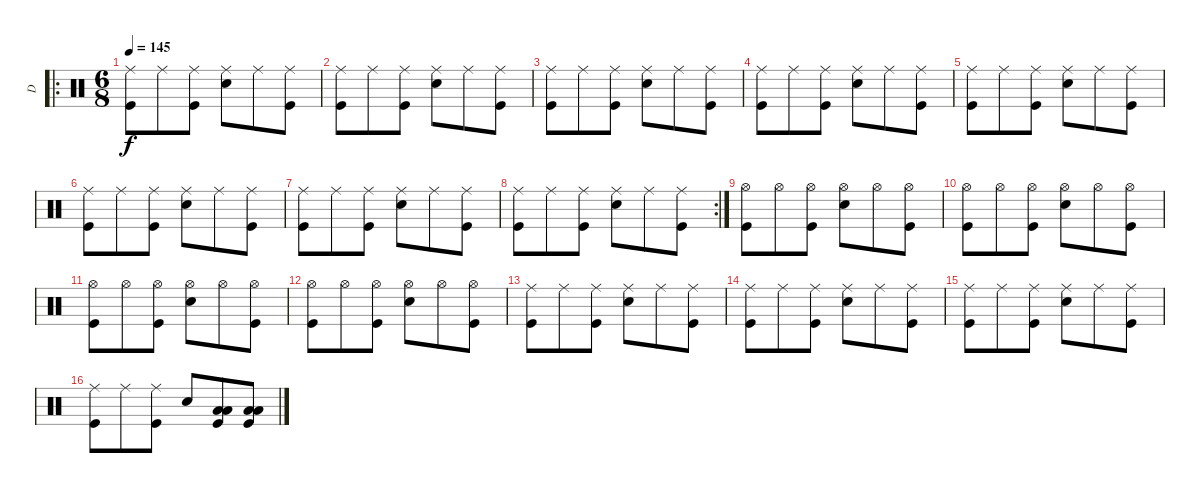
\track ("D" "D") {instrument percussion}
\staff {score}
\articulation defaults
\ro
\ts (6 8)
\tempo 145
\clef neutral
\ks c
("Ride (middle)" "Kick (hit)").8{dy f} "Ride (middle)".8 ("Ride (middle)" "Kick (hit)").8 ("Ride (middle)" "Snare (hit) 2").8 "Ride (middle)".8 ("Ride (middle)" "Kick (hit)").8 |
("Ride (middle)" "Kick (hit)").8 "Ride (middle)".8 ("Ride (middle)" "Kick (hit)").8 ("Ride (middle)" "Snare (hit) 2").8 "Ride (middle)".8 ("Ride (middle)" "Kick (hit)").8 |
("Ride (middle)" "Kick (hit)").8 "Ride (middle)".8 ("Ride (middle)" "Kick (hit)").8 ("Ride (middle)" "Snare (hit) 2").8 "Ride (middle)".8 ("Ride (middle)" "Kick (hit)").8 |
("Ride (middle)" "Kick (hit)").8 "Ride (middle)".8 ("Ride (middle)" "Kick (hit)").8 ("Ride (middle)" "Snare (hit) 2").8 "Ride (middle)".8 ("Ride (middle)" "Kick (hit)").8 |
("Ride (middle)" "Kick (hit)").8 "Ride (middle)".8 ("Ride (middle)" "Kick (hit)").8 ("Ride (middle)" "Snare (hit) 2").8 "Ride (middle)".8 ("Ride (middle)" "Kick (hit)").8 |
("Ride (middle)" "Kick (hit)").8 "Ride (middle)".8 ("Ride (middle)" "Kick (hit)").8 ("Ride (middle)" "Snare (hit) 2").8 "Ride (middle)".8 ("Ride (middle)" "Kick (hit)").8 |
("Ride (middle)" "Kick (hit)").8 "Ride (middle)".8 ("Ride (middle)" "Kick (hit)").8 ("Ride (middle)" "Snare (hit) 2").8 "Ride (middle)".8 ("Ride (middle)" "Kick (hit)").8 |
\rc 2
("Ride (middle)" "Kick (hit)").8 "Ride (middle)".8 ("Ride (middle)" "Kick (hit)").8 ("Ride (middle)" "Snare (hit) 2").8 "Ride (middle)".8 ("Ride (middle)" "Kick (hit)").8 |
("Hi-Hat (open)" "Kick (hit)").8 "Hi-Hat (open)".8 ("Hi-Hat (open)" "Kick (hit)").8 ("Hi-Hat (open)" "Snare (hit) 2").8 "Hi-Hat (open)".8 ("Hi-Hat (open)" "Kick (hit)").8 |
("Hi-Hat (open)" "Kick (hit)").8 "Hi-Hat (open)".8 ("Hi-Hat (open)" "Kick (hit)").8 ("Hi-Hat (open)" "Snare (hit) 2").8 "Hi-Hat (open)".8 ("Hi-Hat (open)" "Kick (hit)").8 |
("Hi-Hat (open)" "Kick (hit)").8 "Hi-Hat (open)".8 ("Hi-Hat (open)" "Kick (hit)").8 ("Hi-Hat (open)" "Snare (hit) 2").8 "Hi-Hat (open)".8 ("Hi-Hat (open)" "Kick (hit)").8 |
("Hi-Hat (open)" "Kick (hit)").8 "Hi-Hat (open)".8 ("Hi-Hat (open)" "Kick (hit)").8 ("Hi-Hat (open)" "Snare (hit) 2").8 "Hi-Hat (open)".8 ("Hi-Hat (open)" "Kick (hit)").8 |
("Ride (middle)" "Kick (hit)").8 "Ride (middle)".8 ("Ride (middle)" "Kick (hit)").8 ("Ride (middle)" "Snare (hit) 2").8 "Ride (middle)".8 ("Ride (middle)" "Kick (hit)").8 |
("Ride (middle)" "Kick (hit)").8 "Ride (middle)".8 ("Ride (middle)" "Kick (hit)").8 ("Ride (middle)" "Snare (hit) 2").8 "Ride (middle)".8 ("Ride (middle)" "Kick (hit)").8 |
("Ride (middle)" "Kick (hit)").8 "Ride (middle)".8 ("Ride (middle)" "Kick (hit)").8 ("Ride (middle)" "Snare (hit) 2").8 "Ride (middle)".8 ("Ride (middle)" "Kick (hit)").8 |
("Ride (middle)" "Kick (hit)").8 "Ride (middle)".8 ("Ride (middle)" "Kick (hit)").8 "Snare (hit) 2".8 ("Low Tom (hit)" "Low Tom (hit)" "Kick (hit)").8 ("Low Floor Tom (hit)" "Low Floor Tom (hit)" "Kick (hit)").8
